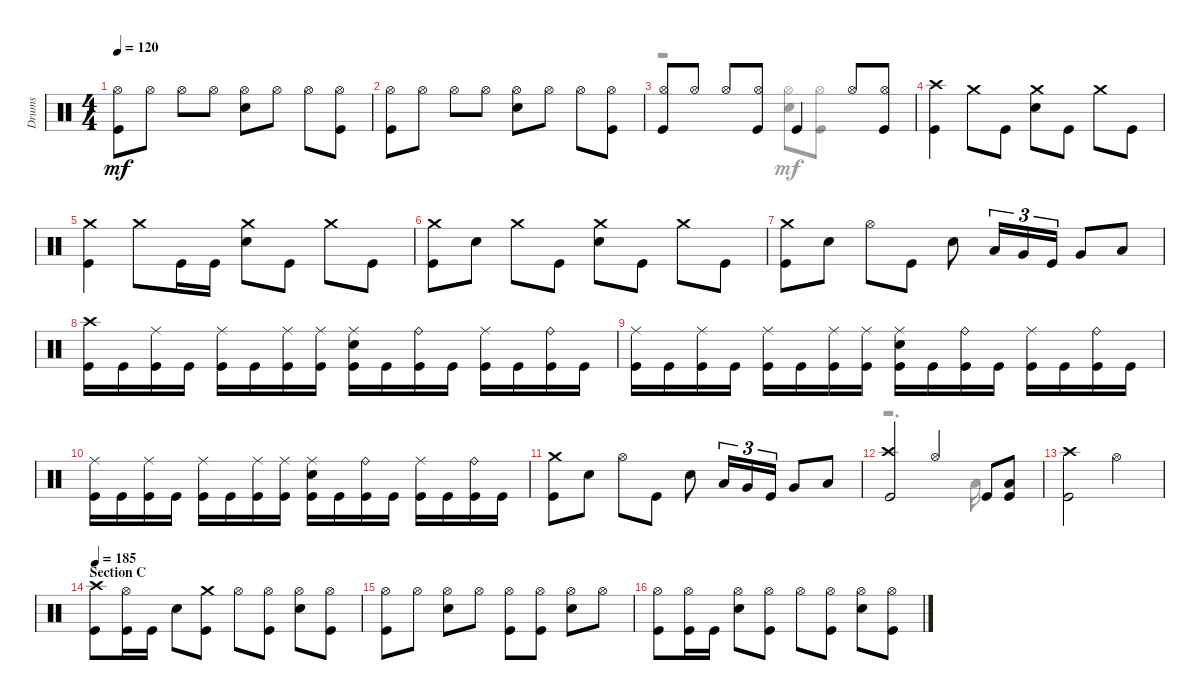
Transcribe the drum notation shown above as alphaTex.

\track ("Drums" "Drums") {instrument percussion}
\staff {score}
\articulation defaults
\voice
\ts (4 4)
\tempo 120
\clef neutral
\ks aminor
("Hi-Hat (open)" "Kick (hit)").8{dy mf} "Hi-Hat (open)".8 "Hi-Hat (open)".8 "Hi-Hat (open)".8 ("Hi-Hat (open)" "Snare (hit) 2").8 "Hi-Hat (open)".8 "Hi-Hat (open)".8 ("Kick (hit)" "Hi-Hat (open)").8 |
("Kick (hit)" "Hi-Hat (open)").8 "Hi-Hat (open)".8 "Hi-Hat (open)".8 "Hi-Hat (open)".8 ("Snare (hit) 2" "Hi-Hat (open)").8 "Hi-Hat (open)".8 "Hi-Hat (open)".8 ("Hi-Hat (open)" "Kick (hit)").8 |
("Kick (hit)" "Hi-Hat (open)").8 "Hi-Hat (open)".8 "Hi-Hat (open)".8 ("Hi-Hat (open)" "Kick (hit)").8 "Kick (hit)".4 "Hi-Hat (open)".8 ("Kick (hit)" "Hi-Hat (open)").8 |
("Kick (hit)" "Crash high (hit)").4 "Crash medium (hit)".8 "Kick (hit)".8 ("Snare (hit) 2" "Crash medium (hit)").8 "Kick (hit)".8 "Crash medium (hit)".8 "Kick (hit)".8 |
("Crash medium (hit)" "Kick (hit)").4 "Crash medium (hit)".8 "Kick (hit)".16 "Kick (hit)".16 ("Snare (hit) 2" "Crash medium (hit)").8 "Kick (hit)".8 "Crash medium (hit)".8 "Kick (hit)".8 |
("Kick (hit)" "Crash medium (hit)").8 "Snare (hit) 2".8 "Crash medium (hit)".8 "Kick (hit)".8 ("Snare (hit) 2" "Crash medium (hit)").8 "Kick (hit)".8 "Crash medium (hit)".8 "Kick (hit)".8 |
("Kick (hit)" "Crash medium (hit)").8 "Snare (hit) 2".8 "Hi-Hat (open)".8 "Kick (hit)".8 "Snare (hit) 2".8 "Low Tom (hit)".16{tu (3 2)} "Very Low Tom (hit)".16{tu (3 2)} "Kick (hit)".16{tu (3 2)} "Very Low Tom (hit)".8 "Low Floor Tom (hit)".8 |
("Kick (hit)" "Crash high (hit)").16 "Kick (hit)".16 ("Ride (middle)" "Kick (hit)").16 "Kick (hit)".16 ("Kick (hit)" "Ride (middle)").16 "Kick (hit)".16 ("Kick (hit)" "Ride (middle)").16 ("Ride (middle)" "Kick (hit)").16 ("Kick (hit)" "Snare (hit) 2" "Ride (middle)").16 "Kick (hit)".16 ("Ride (bell)" "Kick (hit)").16 "Kick (hit)".16 ("Ride (middle)" "Kick (hit)").16 "Kick (hit)".16 ("Ride (bell)" "Kick (hit)").16 "Kick (hit)".16 |
("Ride (middle)" "Kick (hit)").16 "Kick (hit)".16 ("Ride (middle)" "Kick (hit)").16 "Kick (hit)".16 ("Kick (hit)" "Ride (middle)").16 "Kick (hit)".16 ("Kick (hit)" "Ride (middle)").16 ("Ride (middle)" "Kick (hit)").16 ("Snare (hit) 2" "Ride (middle)" "Kick (hit)").16 "Kick (hit)".16 ("Ride (bell)" "Kick (hit)").16 "Kick (hit)".16 ("Kick (hit)" "Ride (middle)").16 "Kick (hit)".16 ("Kick (hit)" "Ride (bell)").16 "Kick (hit)".16 |
("Kick (hit)" "Ride (middle)").16 "Kick (hit)".16 ("Kick (hit)" "Ride (middle)").16 "Kick (hit)".16 ("Kick (hit)" "Ride (middle)").16 "Kick (hit)".16 ("Ride (middle)" "Kick (hit)").16 ("Ride (middle)" "Kick (hit)").16 ("Ride (middle)" "Snare (hit) 2" "Kick (hit)").16 "Kick (hit)".16 ("Ride (bell)" "Kick (hit)").16 "Kick (hit)".16 ("Ride (middle)" "Kick (hit)").16 "Kick (hit)".16 ("Ride (bell)" "Kick (hit)").16 "Kick (hit)".16 |
("Kick (hit)" "Crash medium (hit)").8 "Snare (hit) 2".8 "Hi-Hat (open)".8 "Kick (hit)".8 "Snare (hit) 2".8 "Low Tom (hit)".16{tu (3 2)} "Very Low Tom (hit)".16{tu (3 2)} "Kick (hit)".16{tu (3 2)} "Very Low Tom (hit)".8 "Low Floor Tom (hit)".8 |
("Crash high (hit)" "Kick (hit)").2 "Hi-Hat (open)".4 "Kick (hit)".8 ("Low Floor Tom (hit)" "Kick (hit)").8 |
("Kick (hit)" "Crash high (hit)").2 "Hi-Hat (open)".2 |
\section ("" "Section C")
\tempo 185
("Kick (hit)" "Crash high (hit)").8 ("Kick (hit)" "Hi-Hat (open)").16 "Kick (hit)".16 "Snare (hit) 2".8 ("Kick (hit)" "Crash medium (hit)").8 "Hi-Hat (open)".8 ("Hi-Hat (open)" "Kick (hit)").8 ("Snare (hit) 2" "Hi-Hat (open)").8 ("Hi-Hat (open)" "Kick (hit)").8 |
("Hi-Hat (open)" "Kick (hit)").8 "Hi-Hat (open)".8 ("Snare (hit) 2" "Hi-Hat (open)").8 "Hi-Hat (open)".8 ("Kick (hit)" "Hi-Hat (open)").8 ("Kick (hit)" "Hi-Hat (open)").8 ("Hi-Hat (open)" "Snare (hit) 2").8 "Hi-Hat (open)".8 |
("Hi-Hat (open)" "Kick (hit)").8 ("Kick (hit)" "Hi-Hat (open)").16 "Kick (hit)".16 ("Hi-Hat (open)" "Snare (hit) 2").8 ("Hi-Hat (open)" "Kick (hit)").8 "Hi-Hat (open)".8 ("Hi-Hat (open)" "Kick (hit)").8 ("Hi-Hat (open)" "Snare (hit) 2").8 ("Hi-Hat (open)" "Kick (hit)").8
\voice
\clef neutral
\ottava regular
\simile none
\ks aminor
|
|
r.2 ("Snare (hit) 2" "Hi-Hat (open)").8 ("Hi-Hat (open)" "Kick (hit)").8 |
|
|
|
|
|
|
|
|
r.2{d} "Low Floor Tom (hit)".16 |
|
|
|
